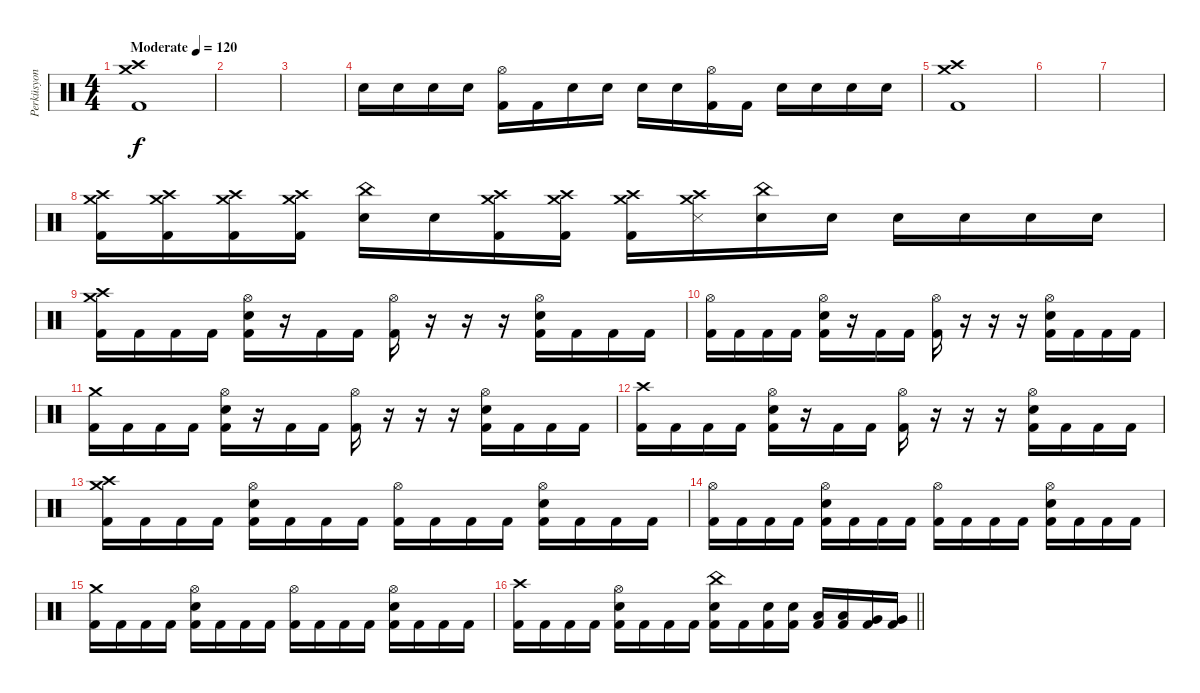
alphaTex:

\track ("Perküsyon" "Perküsyon") {instrument percussion}
\staff {score}
\articulation defaults
\ts (4 4)
\section ("" "")
\tempo (120 "Moderate")
\clef neutral
\ks c
("Crash high (hit)" "Crash medium (hit)" "Kick (hit) 2").1{dy f} |
|
|
"Snare (hit) 2".16 "Snare (hit) 2".16 "Snare (hit) 2".16 "Snare (hit) 2".16 ("Hi-Hat (open)" "Kick (hit) 2").16 "Kick (hit) 2".16 "Snare (hit) 2".16 "Snare (hit) 2".16 "Snare (hit) 2".16 "Snare (hit) 2".16 ("Hi-Hat (open)" "Kick (hit) 2").16 "Kick (hit) 2".16 "Snare (hit) 2".16 "Snare (hit) 2".16 "Snare (hit) 2".16 "Snare (hit) 2".16 |
("Crash high (hit)" "Crash medium (hit)" "Kick (hit) 2").1 |
|
|
("Crash medium (hit)" "Crash high (hit)" "Kick (hit) 2").16 ("Crash medium (hit)" "Crash high (hit)" "Kick (hit) 2").16 ("Crash medium (hit)" "Crash high (hit)" "Kick (hit) 2").16 ("Crash medium (hit)" "Crash high (hit)" "Kick (hit) 2").16 ("China (hit)" "Snare (hit) 2").16 "Snare (hit) 2".16 ("Crash medium (hit)" "Crash high (hit)" "Kick (hit) 2").16 ("Crash medium (hit)" "Crash high (hit)" "Kick (hit) 2").16 ("Crash medium (hit)" "Crash high (hit)" "Kick (hit) 2").16 ("Crash medium (hit)" "Crash high (hit)" "Snare (side stick) 3").16 ("China (hit)" "Snare (hit) 2").16 "Snare (hit) 2".16 "Snare (hit) 2".16 "Snare (hit) 2".16 "Snare (hit) 2".16 "Snare (hit) 2".16 |
("Crash high (hit)" "Crash medium (hit)" "Kick (hit) 2").16 "Kick (hit) 2".16 "Kick (hit) 2".16 "Kick (hit) 2".16 ("Snare (hit) 2" "Hi-Hat (open)" "Kick (hit) 2").16 r.16 "Kick (hit) 2".16 "Kick (hit) 2".16 ("Hi-Hat (open)" "Kick (hit) 2").16 r.16 r.16 r.16 ("Snare (hit) 2" "Hi-Hat (open)" "Kick (hit) 2").16 "Kick (hit) 2".16 "Kick (hit) 2".16 "Kick (hit) 2".16 |
("Hi-Hat (open)" "Kick (hit) 2").16 "Kick (hit) 2".16 "Kick (hit) 2".16 "Kick (hit) 2".16 ("Snare (hit) 2" "Hi-Hat (open)" "Kick (hit) 2").16 r.16 "Kick (hit) 2".16 "Kick (hit) 2".16 ("Hi-Hat (open)" "Kick (hit) 2").16 r.16 r.16 r.16 ("Snare (hit) 2" "Hi-Hat (open)" "Kick (hit) 2").16 "Kick (hit) 2".16 "Kick (hit) 2".16 "Kick (hit) 2".16 |
("Crash medium (hit)" "Kick (hit) 2").16 "Kick (hit) 2".16 "Kick (hit) 2".16 "Kick (hit) 2".16 ("Snare (hit) 2" "Hi-Hat (open)" "Kick (hit) 2").16 r.16 "Kick (hit) 2".16 "Kick (hit) 2".16 ("Hi-Hat (open)" "Kick (hit) 2").16 r.16 r.16 r.16 ("Snare (hit) 2" "Hi-Hat (open)" "Kick (hit) 2").16 "Kick (hit) 2".16 "Kick (hit) 2".16 "Kick (hit) 2".16 |
("Crash high (hit)" "Kick (hit) 2").16 "Kick (hit) 2".16 "Kick (hit) 2".16 "Kick (hit) 2".16 ("Snare (hit) 2" "Hi-Hat (open)" "Kick (hit) 2").16 r.16 "Kick (hit) 2".16 "Kick (hit) 2".16 ("Hi-Hat (open)" "Kick (hit) 2").16 r.16 r.16 r.16 ("Snare (hit) 2" "Hi-Hat (open)" "Kick (hit) 2").16 "Kick (hit) 2".16 "Kick (hit) 2".16 "Kick (hit) 2".16 |
("Crash medium (hit)" "Crash high (hit)" "Kick (hit) 2").16 "Kick (hit) 2".16 "Kick (hit) 2".16 "Kick (hit) 2".16 ("Snare (hit) 2" "Hi-Hat (open)" "Kick (hit) 2").16 "Kick (hit) 2".16 "Kick (hit) 2".16 "Kick (hit) 2".16 ("Hi-Hat (open)" "Kick (hit) 2").16 "Kick (hit) 2".16 "Kick (hit) 2".16 "Kick (hit) 2".16 ("Snare (hit) 2" "Hi-Hat (open)" "Kick (hit) 2").16 "Kick (hit) 2".16 "Kick (hit) 2".16 "Kick (hit) 2".16 |
("Hi-Hat (open)" "Kick (hit) 2").16 "Kick (hit) 2".16 "Kick (hit) 2".16 "Kick (hit) 2".16 ("Snare (hit) 2" "Hi-Hat (open)" "Kick (hit) 2").16 "Kick (hit) 2".16 "Kick (hit) 2".16 "Kick (hit) 2".16 ("Hi-Hat (open)" "Kick (hit) 2").16 "Kick (hit) 2".16 "Kick (hit) 2".16 "Kick (hit) 2".16 ("Snare (hit) 2" "Hi-Hat (open)" "Kick (hit) 2").16 "Kick (hit) 2".16 "Kick (hit) 2".16 "Kick (hit) 2".16 |
("Crash medium (hit)" "Kick (hit) 2").16 "Kick (hit) 2".16 "Kick (hit) 2".16 "Kick (hit) 2".16 ("Snare (hit) 2" "Hi-Hat (open)" "Kick (hit) 2").16 "Kick (hit) 2".16 "Kick (hit) 2".16 "Kick (hit) 2".16 ("Hi-Hat (open)" "Kick (hit) 2").16 "Kick (hit) 2".16 "Kick (hit) 2".16 "Kick (hit) 2".16 ("Snare (hit) 2" "Hi-Hat (open)" "Kick (hit) 2").16 "Kick (hit) 2".16 "Kick (hit) 2".16 "Kick (hit) 2".16 |
\barLineRight lightlight
("Crash high (hit)" "Kick (hit) 2").16 "Kick (hit) 2".16 "Kick (hit) 2".16 "Kick (hit) 2".16 ("Snare (hit) 2" "Hi-Hat (open)" "Kick (hit) 2").16 "Kick (hit) 2".16 "Kick (hit) 2".16 "Kick (hit) 2".16 ("Snare (hit) 2" "China (hit)" "Kick (hit) 2").16 "Kick (hit) 2".16 ("Snare (hit) 2" "Kick (hit) 2").16 ("Snare (hit) 2" "Kick (hit) 2").16 ("Low Tom (hit)" "Kick (hit) 2").16 ("Low Tom (hit)" "Kick (hit) 2").16 ("Very Low Tom (hit)" "Kick (hit) 2").16 ("Very Low Tom (hit)" "Kick (hit) 2").16
